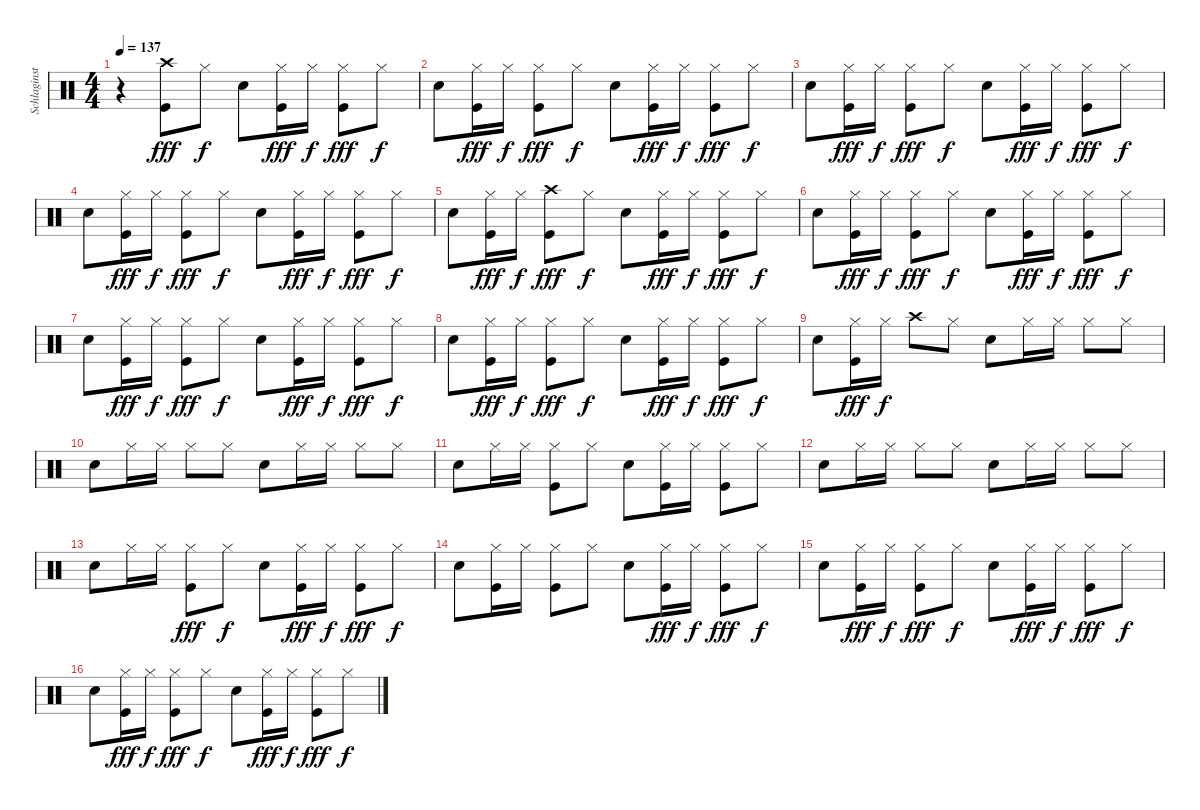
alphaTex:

\track ("Schlaginstrument" "Schlaginst") {instrument percussion}
\staff {score}
\articulation defaults
\ts (4 4)
\tempo 137
\clef neutral
\ks c
r.4{dy f} ("Crash high (hit)" "Kick (hit)").8{dy fff} "Hi-Hat (closed)".8{dy f} "Hand Clap (hit)".8 ("Hi-Hat (closed)" "Kick (hit)").16{dy fff} "Hi-Hat (closed)".16{dy f} ("Hi-Hat (closed)" "Kick (hit)").8{dy fff} "Hi-Hat (closed)".8{dy f} |
"Hand Clap (hit)".8 ("Hi-Hat (closed)" "Kick (hit)").16{dy fff} "Hi-Hat (closed)".16{dy f} ("Hi-Hat (closed)" "Kick (hit)").8{dy fff} "Hi-Hat (closed)".8{dy f} "Hand Clap (hit)".8 ("Hi-Hat (closed)" "Kick (hit)").16{dy fff} "Hi-Hat (closed)".16{dy f} ("Hi-Hat (closed)" "Kick (hit)").8{dy fff} "Hi-Hat (closed)".8{dy f} |
"Hand Clap (hit)".8 ("Hi-Hat (closed)" "Kick (hit)").16{dy fff} "Hi-Hat (closed)".16{dy f} ("Hi-Hat (closed)" "Kick (hit)").8{dy fff} "Hi-Hat (closed)".8{dy f} "Hand Clap (hit)".8 ("Hi-Hat (closed)" "Kick (hit)").16{dy fff} "Hi-Hat (closed)".16{dy f} ("Hi-Hat (closed)" "Kick (hit)").8{dy fff} "Hi-Hat (closed)".8{dy f} |
"Hand Clap (hit)".8 ("Hi-Hat (closed)" "Kick (hit)").16{dy fff} "Hi-Hat (closed)".16{dy f} ("Hi-Hat (closed)" "Kick (hit)").8{dy fff} "Hi-Hat (closed)".8{dy f} "Hand Clap (hit)".8 ("Hi-Hat (closed)" "Kick (hit)").16{dy fff} "Hi-Hat (closed)".16{dy f} ("Hi-Hat (closed)" "Kick (hit)").8{dy fff} "Hi-Hat (closed)".8{dy f} |
"Hand Clap (hit)".8 ("Hi-Hat (closed)" "Kick (hit)").16{dy fff} "Hi-Hat (closed)".16{dy f} ("Crash high (hit)" "Kick (hit)").8{dy fff} "Hi-Hat (closed)".8{dy f} "Hand Clap (hit)".8 ("Hi-Hat (closed)" "Kick (hit)").16{dy fff} "Hi-Hat (closed)".16{dy f} ("Hi-Hat (closed)" "Kick (hit)").8{dy fff} "Hi-Hat (closed)".8{dy f} |
"Hand Clap (hit)".8 ("Hi-Hat (closed)" "Kick (hit)").16{dy fff} "Hi-Hat (closed)".16{dy f} ("Hi-Hat (closed)" "Kick (hit)").8{dy fff} "Hi-Hat (closed)".8{dy f} "Hand Clap (hit)".8 ("Hi-Hat (closed)" "Kick (hit)").16{dy fff} "Hi-Hat (closed)".16{dy f} ("Hi-Hat (closed)" "Kick (hit)").8{dy fff} "Hi-Hat (closed)".8{dy f} |
"Hand Clap (hit)".8 ("Hi-Hat (closed)" "Kick (hit)").16{dy fff} "Hi-Hat (closed)".16{dy f} ("Hi-Hat (closed)" "Kick (hit)").8{dy fff} "Hi-Hat (closed)".8{dy f} "Hand Clap (hit)".8 ("Hi-Hat (closed)" "Kick (hit)").16{dy fff} "Hi-Hat (closed)".16{dy f} ("Hi-Hat (closed)" "Kick (hit)").8{dy fff} "Hi-Hat (closed)".8{dy f} |
"Hand Clap (hit)".8 ("Hi-Hat (closed)" "Kick (hit)").16{dy fff} "Hi-Hat (closed)".16{dy f} ("Hi-Hat (closed)" "Kick (hit)").8{dy fff} "Hi-Hat (closed)".8{dy f} "Hand Clap (hit)".8 ("Hi-Hat (closed)" "Kick (hit)").16{dy fff} "Hi-Hat (closed)".16{dy f} ("Hi-Hat (closed)" "Kick (hit)").8{dy fff} "Hi-Hat (closed)".8{dy f} |
"Hand Clap (hit)".8 ("Hi-Hat (closed)" "Kick (hit)").16{dy fff} "Hi-Hat (closed)".16{dy f} "Crash high (hit)".8 "Hi-Hat (closed)".8 "Hand Clap (hit)".8 "Hi-Hat (closed)".16 "Hi-Hat (closed)".16 "Hi-Hat (closed)".8 "Hi-Hat (closed)".8 |
"Hand Clap (hit)".8 "Hi-Hat (closed)".16 "Hi-Hat (closed)".16 "Hi-Hat (closed)".8 "Hi-Hat (closed)".8 "Hand Clap (hit)".8 "Hi-Hat (closed)".16 "Hi-Hat (closed)".16 "Hi-Hat (closed)".8 "Hi-Hat (closed)".8 |
"Hand Clap (hit)".8 "Hi-Hat (closed)".16 "Hi-Hat (closed)".16 ("Hi-Hat (closed)" "Kick (hit)").8 "Hi-Hat (closed)".8 "Hand Clap (hit)".8 ("Hi-Hat (closed)" "Kick (hit)").16 "Hi-Hat (closed)".16 ("Hi-Hat (closed)" "Kick (hit)").8 "Hi-Hat (closed)".8 |
"Hand Clap (hit)".8 "Hi-Hat (closed)".16 "Hi-Hat (closed)".16 "Hi-Hat (closed)".8 "Hi-Hat (closed)".8 "Hand Clap (hit)".8 "Hi-Hat (closed)".16 "Hi-Hat (closed)".16 "Hi-Hat (closed)".8 "Hi-Hat (closed)".8 |
"Hand Clap (hit)".8 "Hi-Hat (closed)".16 "Hi-Hat (closed)".16 ("Hi-Hat (closed)" "Kick (hit)").8{dy fff} "Hi-Hat (closed)".8{dy f} "Hand Clap (hit)".8 ("Hi-Hat (closed)" "Kick (hit)").16{dy fff} "Hi-Hat (closed)".16{dy f} ("Hi-Hat (closed)" "Kick (hit)").8{dy fff} "Hi-Hat (closed)".8{dy f} |
"Hand Clap (hit)".8 ("Hi-Hat (closed)" "Kick (hit)").16 "Hi-Hat (closed)".16 ("Hi-Hat (closed)" "Kick (hit)").8 "Hi-Hat (closed)".8 "Hand Clap (hit)".8 ("Hi-Hat (closed)" "Kick (hit)").16{dy fff} "Hi-Hat (closed)".16{dy f} ("Hi-Hat (closed)" "Kick (hit)").8{dy fff} "Hi-Hat (closed)".8{dy f} |
"Hand Clap (hit)".8 ("Hi-Hat (closed)" "Kick (hit)").16{dy fff} "Hi-Hat (closed)".16{dy f} ("Hi-Hat (closed)" "Kick (hit)").8{dy fff} "Hi-Hat (closed)".8{dy f} "Hand Clap (hit)".8 ("Hi-Hat (closed)" "Kick (hit)").16{dy fff} "Hi-Hat (closed)".16{dy f} ("Hi-Hat (closed)" "Kick (hit)").8{dy fff} "Hi-Hat (closed)".8{dy f} |
"Hand Clap (hit)".8 ("Hi-Hat (closed)" "Kick (hit)").16{dy fff} "Hi-Hat (closed)".16{dy f} ("Hi-Hat (closed)" "Kick (hit)").8{dy fff} "Hi-Hat (closed)".8{dy f} "Hand Clap (hit)".8 ("Hi-Hat (closed)" "Kick (hit)").16{dy fff} "Hi-Hat (closed)".16{dy f} ("Hi-Hat (closed)" "Kick (hit)").8{dy fff} "Hi-Hat (closed)".8{dy f}
